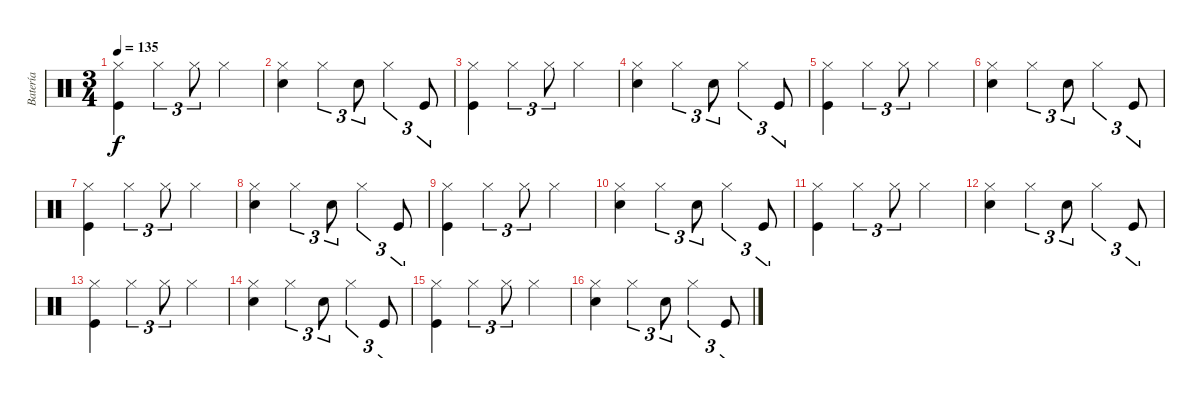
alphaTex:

\track ("Batería" "Batería") {instrument percussion}
\staff {score}
\articulation defaults
\ts (3 4)
\tempo 135
\clef neutral
\ks c
("Hi-Hat (closed)" "Kick (hit)").4{dy f} "Hi-Hat (closed)".4{tu (3 2)} "Hi-Hat (closed)".8{tu (3 2)} "Hi-Hat (closed)".4 |
("Hi-Hat (closed)" "Snare (hit) 2").4 "Hi-Hat (closed)".4{tu (3 2)} "Snare (hit) 2".8{tu (3 2)} "Hi-Hat (closed)".4{tu (3 2)} "Kick (hit)".8{tu (3 2)} |
("Hi-Hat (closed)" "Kick (hit)").4 "Hi-Hat (closed)".4{tu (3 2)} "Hi-Hat (closed)".8{tu (3 2)} "Hi-Hat (closed)".4 |
("Hi-Hat (closed)" "Snare (hit) 2").4 "Hi-Hat (closed)".4{tu (3 2)} "Snare (hit) 2".8{tu (3 2)} "Hi-Hat (closed)".4{tu (3 2)} "Kick (hit)".8{tu (3 2)} |
("Hi-Hat (closed)" "Kick (hit)").4 "Hi-Hat (closed)".4{tu (3 2)} "Hi-Hat (closed)".8{tu (3 2)} "Hi-Hat (closed)".4 |
("Hi-Hat (closed)" "Snare (hit) 2").4 "Hi-Hat (closed)".4{tu (3 2)} "Snare (hit) 2".8{tu (3 2)} "Hi-Hat (closed)".4{tu (3 2)} "Kick (hit)".8{tu (3 2)} |
("Hi-Hat (closed)" "Kick (hit)").4 "Hi-Hat (closed)".4{tu (3 2)} "Hi-Hat (closed)".8{tu (3 2)} "Hi-Hat (closed)".4 |
("Hi-Hat (closed)" "Snare (hit) 2").4 "Hi-Hat (closed)".4{tu (3 2)} "Snare (hit) 2".8{tu (3 2)} "Hi-Hat (closed)".4{tu (3 2)} "Kick (hit)".8{tu (3 2)} |
("Hi-Hat (closed)" "Kick (hit)").4 "Hi-Hat (closed)".4{tu (3 2)} "Hi-Hat (closed)".8{tu (3 2)} "Hi-Hat (closed)".4 |
("Hi-Hat (closed)" "Snare (hit) 2").4 "Hi-Hat (closed)".4{tu (3 2)} "Snare (hit) 2".8{tu (3 2)} "Hi-Hat (closed)".4{tu (3 2)} "Kick (hit)".8{tu (3 2)} |
("Hi-Hat (closed)" "Kick (hit)").4 "Hi-Hat (closed)".4{tu (3 2)} "Hi-Hat (closed)".8{tu (3 2)} "Hi-Hat (closed)".4 |
("Hi-Hat (closed)" "Snare (hit) 2").4 "Hi-Hat (closed)".4{tu (3 2)} "Snare (hit) 2".8{tu (3 2)} "Hi-Hat (closed)".4{tu (3 2)} "Kick (hit)".8{tu (3 2)} |
("Hi-Hat (closed)" "Kick (hit)").4 "Hi-Hat (closed)".4{tu (3 2)} "Hi-Hat (closed)".8{tu (3 2)} "Hi-Hat (closed)".4 |
("Hi-Hat (closed)" "Snare (hit) 2").4 "Hi-Hat (closed)".4{tu (3 2)} "Snare (hit) 2".8{tu (3 2)} "Hi-Hat (closed)".4{tu (3 2)} "Kick (hit)".8{tu (3 2)} |
("Hi-Hat (closed)" "Kick (hit)").4 "Hi-Hat (closed)".4{tu (3 2)} "Hi-Hat (closed)".8{tu (3 2)} "Hi-Hat (closed)".4 |
("Hi-Hat (closed)" "Snare (hit) 2").4 "Hi-Hat (closed)".4{tu (3 2)} "Snare (hit) 2".8{tu (3 2)} "Hi-Hat (closed)".4{tu (3 2)} "Kick (hit)".8{tu (3 2)}
